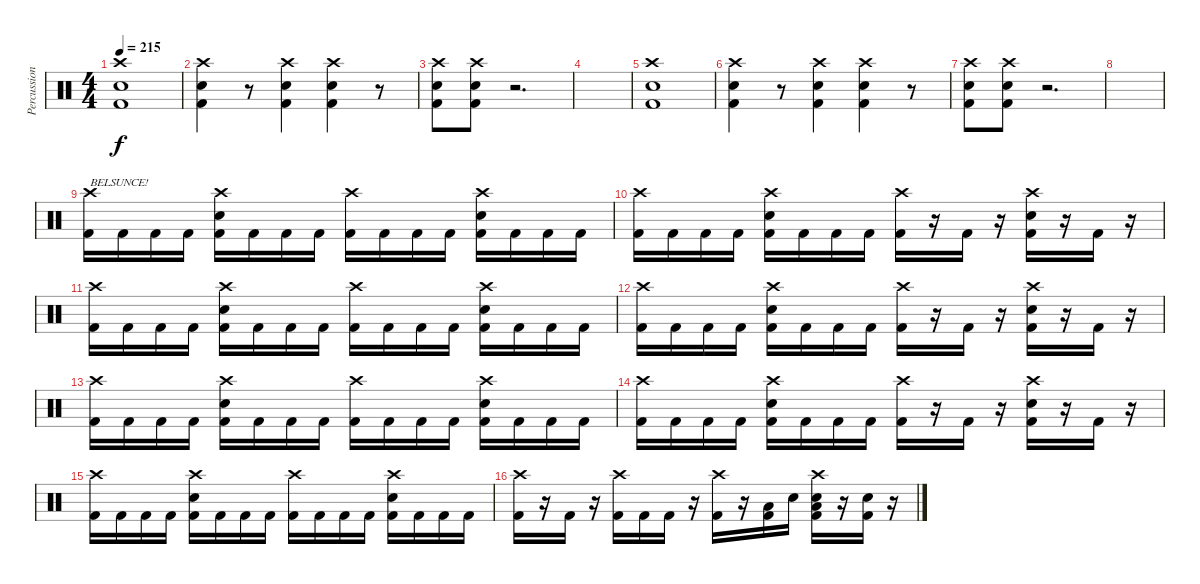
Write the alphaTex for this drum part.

\track ("Percussions" "Percussion") {instrument percussion}
\staff {score}
\articulation defaults
\ts (4 4)
\tempo 215
\clef neutral
\ks c
("Crash high (hit)" "Electric Snare (hit)" "Kick (hit) 2").1{dy f} |
("Crash high (hit)" "Electric Snare (hit)" "Kick (hit) 2").4 r.8 ("Crash high (hit)" "Electric Snare (hit)" "Kick (hit) 2").4 ("Crash high (hit)" "Electric Snare (hit)" "Kick (hit) 2").4 r.8 |
("Crash high (hit)" "Electric Snare (hit)" "Kick (hit) 2").8 ("Crash high (hit)" "Electric Snare (hit)" "Kick (hit) 2").8 r.2{d} |
|
("Crash high (hit)" "Electric Snare (hit)" "Kick (hit) 2").1 |
("Crash high (hit)" "Electric Snare (hit)" "Kick (hit) 2").4 r.8 ("Crash high (hit)" "Electric Snare (hit)" "Kick (hit) 2").4 ("Crash high (hit)" "Electric Snare (hit)" "Kick (hit) 2").4 r.8 |
("Crash high (hit)" "Electric Snare (hit)" "Kick (hit) 2").8 ("Crash high (hit)" "Electric Snare (hit)" "Kick (hit) 2").8 r.2{d} |
|
("Crash high (hit)" "Kick (hit) 2").16{txt "BELSUNCE!"} "Kick (hit) 2".16 "Kick (hit) 2".16 "Kick (hit) 2".16 ("Crash high (hit)" "Electric Snare (hit)" "Kick (hit) 2").16 "Kick (hit) 2".16 "Kick (hit) 2".16 "Kick (hit) 2".16 ("Crash high (hit)" "Kick (hit) 2").16 "Kick (hit) 2".16 "Kick (hit) 2".16 "Kick (hit) 2".16 ("Crash high (hit)" "Electric Snare (hit)" "Kick (hit) 2").16 "Kick (hit) 2".16 "Kick (hit) 2".16 "Kick (hit) 2".16 |
("Crash high (hit)" "Kick (hit) 2").16 "Kick (hit) 2".16 "Kick (hit) 2".16 "Kick (hit) 2".16 ("Crash high (hit)" "Electric Snare (hit)" "Kick (hit) 2").16 "Kick (hit) 2".16 "Kick (hit) 2".16 "Kick (hit) 2".16 ("Crash high (hit)" "Kick (hit) 2").16 r.16 "Kick (hit) 2".16 r.16 ("Crash high (hit)" "Electric Snare (hit)" "Kick (hit) 2").16 r.16 "Kick (hit) 2".16 r.16 |
("Crash high (hit)" "Kick (hit) 2").16 "Kick (hit) 2".16 "Kick (hit) 2".16 "Kick (hit) 2".16 ("Crash high (hit)" "Electric Snare (hit)" "Kick (hit) 2").16 "Kick (hit) 2".16 "Kick (hit) 2".16 "Kick (hit) 2".16 ("Crash high (hit)" "Kick (hit) 2").16 "Kick (hit) 2".16 "Kick (hit) 2".16 "Kick (hit) 2".16 ("Crash high (hit)" "Electric Snare (hit)" "Kick (hit) 2").16 "Kick (hit) 2".16 "Kick (hit) 2".16 "Kick (hit) 2".16 |
("Crash high (hit)" "Kick (hit) 2").16 "Kick (hit) 2".16 "Kick (hit) 2".16 "Kick (hit) 2".16 ("Crash high (hit)" "Electric Snare (hit)" "Kick (hit) 2").16 "Kick (hit) 2".16 "Kick (hit) 2".16 "Kick (hit) 2".16 ("Crash high (hit)" "Kick (hit) 2").16 r.16 "Kick (hit) 2".16 r.16 ("Crash high (hit)" "Electric Snare (hit)" "Kick (hit) 2").16 r.16 "Kick (hit) 2".16 r.16 |
("Crash high (hit)" "Kick (hit) 2").16 "Kick (hit) 2".16 "Kick (hit) 2".16 "Kick (hit) 2".16 ("Crash high (hit)" "Electric Snare (hit)" "Kick (hit) 2").16 "Kick (hit) 2".16 "Kick (hit) 2".16 "Kick (hit) 2".16 ("Crash high (hit)" "Kick (hit) 2").16 "Kick (hit) 2".16 "Kick (hit) 2".16 "Kick (hit) 2".16 ("Crash high (hit)" "Electric Snare (hit)" "Kick (hit) 2").16 "Kick (hit) 2".16 "Kick (hit) 2".16 "Kick (hit) 2".16 |
("Crash high (hit)" "Kick (hit) 2").16 "Kick (hit) 2".16 "Kick (hit) 2".16 "Kick (hit) 2".16 ("Crash high (hit)" "Electric Snare (hit)" "Kick (hit) 2").16 "Kick (hit) 2".16 "Kick (hit) 2".16 "Kick (hit) 2".16 ("Crash high (hit)" "Kick (hit) 2").16 r.16 "Kick (hit) 2".16 r.16 ("Crash high (hit)" "Electric Snare (hit)" "Kick (hit) 2").16 r.16 "Kick (hit) 2".16 r.16 |
("Crash high (hit)" "Kick (hit) 2").16 "Kick (hit) 2".16 "Kick (hit) 2".16 "Kick (hit) 2".16 ("Crash high (hit)" "Electric Snare (hit)" "Kick (hit) 2").16 "Kick (hit) 2".16 "Kick (hit) 2".16 "Kick (hit) 2".16 ("Crash high (hit)" "Kick (hit) 2").16 "Kick (hit) 2".16 "Kick (hit) 2".16 "Kick (hit) 2".16 ("Crash high (hit)" "Electric Snare (hit)" "Kick (hit) 2").16 "Kick (hit) 2".16 "Kick (hit) 2".16 "Kick (hit) 2".16 |
("Crash high (hit)" "Kick (hit) 2").16 r.16 "Kick (hit) 2".16 r.16 ("Crash high (hit)" "Kick (hit) 2").16 "Kick (hit) 2".16 "Kick (hit) 2".16 r.16 ("Crash high (hit)" "Kick (hit) 2").16 r.16 ("Low Tom (hit)" "Kick (hit) 2").16 "Electric Snare (hit)".16 ("Crash high (hit)" "Low Tom (hit)" "Electric Snare (hit)" "Kick (hit) 2").16 r.16 ("Electric Snare (hit)" "Kick (hit) 2").16 r.16
